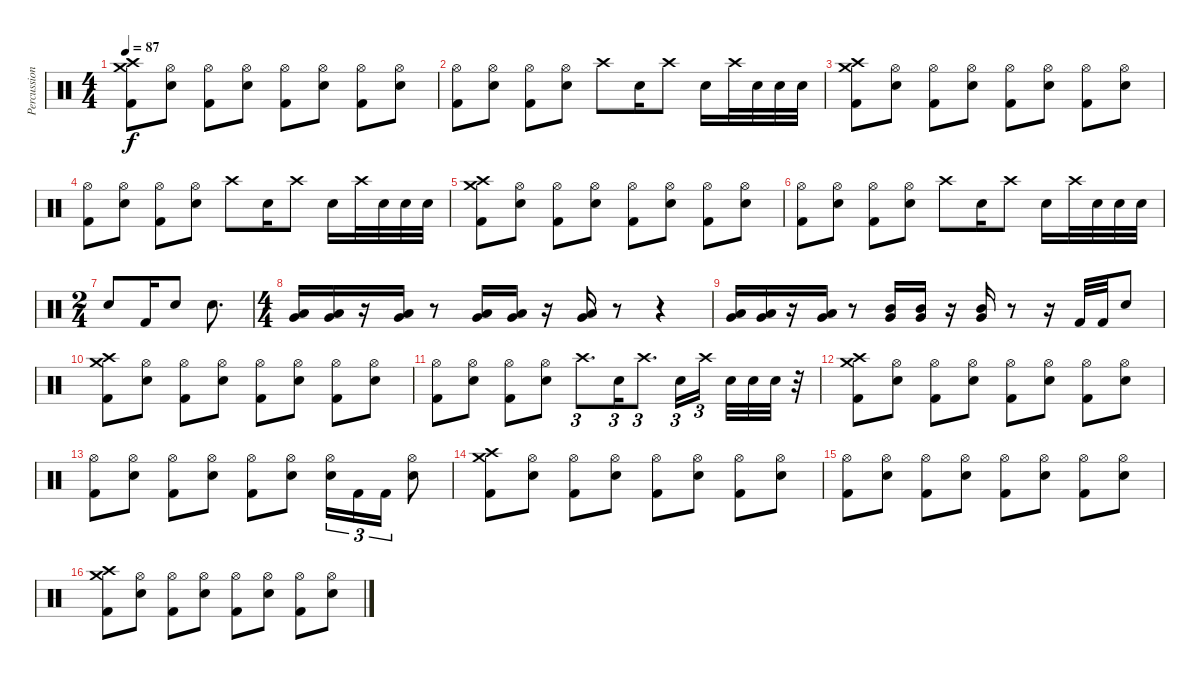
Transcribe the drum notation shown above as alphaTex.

\track ("Percussion" "Percussion") {instrument percussion}
\staff {score}
\articulation defaults
\ts (4 4)
\tempo 87
\clef neutral
\ks c
("Kick (hit) 2" "Crash high (hit)" "Crash medium (hit)").8{dy f} ("Electric Snare (hit)" "Hi-Hat (open)").8 ("Kick (hit) 2" "Hi-Hat (open)").8 ("Electric Snare (hit)" "Hi-Hat (open)").8 ("Kick (hit) 2" "Hi-Hat (open)").8 ("Electric Snare (hit)" "Hi-Hat (open)").8 ("Kick (hit) 2" "Hi-Hat (open)").8 ("Electric Snare (hit)" "Hi-Hat (open)").8 |
("Kick (hit) 2" "Hi-Hat (open)").8 ("Electric Snare (hit)" "Hi-Hat (open)").8 ("Kick (hit) 2" "Hi-Hat (open)").8 ("Electric Snare (hit)" "Hi-Hat (open)").8 "Crash high (hit)".8 "Electric Snare (hit)".16 "Crash high (hit)".8 "Electric Snare (hit)".16 "Crash high (hit)".32 "Electric Snare (hit)".32 "Electric Snare (hit)".32 "Electric Snare (hit)".32 |
("Kick (hit) 2" "Crash high (hit)" "Crash medium (hit)").8 ("Electric Snare (hit)" "Hi-Hat (open)").8 ("Kick (hit) 2" "Hi-Hat (open)").8 ("Electric Snare (hit)" "Hi-Hat (open)").8 ("Kick (hit) 2" "Hi-Hat (open)").8 ("Electric Snare (hit)" "Hi-Hat (open)").8 ("Kick (hit) 2" "Hi-Hat (open)").8 ("Electric Snare (hit)" "Hi-Hat (open)").8 |
("Kick (hit) 2" "Hi-Hat (open)").8 ("Electric Snare (hit)" "Hi-Hat (open)").8 ("Kick (hit) 2" "Hi-Hat (open)").8 ("Electric Snare (hit)" "Hi-Hat (open)").8 "Crash high (hit)".8 "Electric Snare (hit)".16 "Crash high (hit)".8 "Electric Snare (hit)".16 "Crash high (hit)".32 "Electric Snare (hit)".32 "Electric Snare (hit)".32 "Electric Snare (hit)".32 |
("Kick (hit) 2" "Crash high (hit)" "Crash medium (hit)").8 ("Electric Snare (hit)" "Hi-Hat (open)").8 ("Kick (hit) 2" "Hi-Hat (open)").8 ("Electric Snare (hit)" "Hi-Hat (open)").8 ("Kick (hit) 2" "Hi-Hat (open)").8 ("Electric Snare (hit)" "Hi-Hat (open)").8 ("Kick (hit) 2" "Hi-Hat (open)").8 ("Electric Snare (hit)" "Hi-Hat (open)").8 |
("Kick (hit) 2" "Hi-Hat (open)").8 ("Electric Snare (hit)" "Hi-Hat (open)").8 ("Kick (hit) 2" "Hi-Hat (open)").8 ("Electric Snare (hit)" "Hi-Hat (open)").8 "Crash high (hit)".8 "Electric Snare (hit)".16 "Crash high (hit)".8 "Electric Snare (hit)".16 "Crash high (hit)".32 "Electric Snare (hit)".32 "Electric Snare (hit)".32 "Electric Snare (hit)".32 |
\ts (2 4)
"Electric Snare (hit)".8 "Kick (hit) 2".16 "Electric Snare (hit)".8 "Electric Snare (hit)".8{d} |
\ts (4 4)
("Very Low Tom (hit)" "Low Tom (hit)").16 ("Very Low Tom (hit)" "Low Tom (hit)").16 r.16 ("Very Low Tom (hit)" "Low Tom (hit)").16 r.8 ("Very Low Tom (hit)" "Low Tom (hit)").16 ("Very Low Tom (hit)" "Low Tom (hit)").16 r.16 ("Very Low Tom (hit)" "Low Tom (hit)").16 r.8 r.4 |
("Very Low Tom (hit)" "Low Tom (hit)").16 ("Very Low Tom (hit)" "Low Tom (hit)").16 r.16 ("Very Low Tom (hit)" "Low Tom (hit)").16 r.8 ("Very Low Tom (hit)" "Mid Tom (hit)").16 ("Very Low Tom (hit)" "Mid Tom (hit)").16 r.16 ("Very Low Tom (hit)" "Mid Tom (hit)").16 r.8 r.16 "Kick (hit) 2".32 "Kick (hit) 2".32 "Electric Snare (hit)".8 |
("Kick (hit) 2" "Crash high (hit)" "Crash medium (hit)").8 ("Electric Snare (hit)" "Hi-Hat (open)").8 ("Kick (hit) 2" "Hi-Hat (open)").8 ("Electric Snare (hit)" "Hi-Hat (open)").8 ("Kick (hit) 2" "Hi-Hat (open)").8 ("Electric Snare (hit)" "Hi-Hat (open)").8 ("Kick (hit) 2" "Hi-Hat (open)").8 ("Electric Snare (hit)" "Hi-Hat (open)").8 |
("Kick (hit) 2" "Hi-Hat (open)").8 ("Electric Snare (hit)" "Hi-Hat (open)").8 ("Kick (hit) 2" "Hi-Hat (open)").8 ("Electric Snare (hit)" "Hi-Hat (open)").8 "Crash high (hit)".8{d tu (3 2)} "Electric Snare (hit)".16{tu (3 2)} "Crash high (hit)".8{d tu (3 2)} "Electric Snare (hit)".16{tu (3 2)} "Crash high (hit)".16{tu (3 2) beam splitsecondary} "Electric Snare (hit)".32 "Electric Snare (hit)".32 "Electric Snare (hit)".32 r.32 |
("Kick (hit) 2" "Crash high (hit)" "Crash medium (hit)").8 ("Electric Snare (hit)" "Hi-Hat (open)").8 ("Kick (hit) 2" "Hi-Hat (open)").8 ("Electric Snare (hit)" "Hi-Hat (open)").8 ("Kick (hit) 2" "Hi-Hat (open)").8 ("Electric Snare (hit)" "Hi-Hat (open)").8 ("Kick (hit) 2" "Hi-Hat (open)").8 ("Electric Snare (hit)" "Hi-Hat (open)").8 |
("Kick (hit) 2" "Hi-Hat (open)").8 ("Electric Snare (hit)" "Hi-Hat (open)").8 ("Kick (hit) 2" "Hi-Hat (open)").8 ("Electric Snare (hit)" "Hi-Hat (open)").8 ("Kick (hit) 2" "Hi-Hat (open)").8 ("Electric Snare (hit)" "Hi-Hat (open)").8 ("Electric Snare (hit)" "Hi-Hat (open)").16{tu (3 2)} "Kick (hit) 2".16{tu (3 2)} "Kick (hit) 2".16{tu (3 2)} ("Electric Snare (hit)" "Hi-Hat (open)").8 |
("Kick (hit) 2" "Crash high (hit)" "Crash medium (hit)").8 ("Electric Snare (hit)" "Hi-Hat (open)").8 ("Kick (hit) 2" "Hi-Hat (open)").8 ("Electric Snare (hit)" "Hi-Hat (open)").8 ("Kick (hit) 2" "Hi-Hat (open)").8 ("Electric Snare (hit)" "Hi-Hat (open)").8 ("Kick (hit) 2" "Hi-Hat (open)").8 ("Electric Snare (hit)" "Hi-Hat (open)").8 |
("Kick (hit) 2" "Hi-Hat (open)").8 ("Electric Snare (hit)" "Hi-Hat (open)").8 ("Kick (hit) 2" "Hi-Hat (open)").8 ("Electric Snare (hit)" "Hi-Hat (open)").8 ("Kick (hit) 2" "Hi-Hat (open)").8 ("Electric Snare (hit)" "Hi-Hat (open)").8 ("Kick (hit) 2" "Hi-Hat (open)").8 ("Electric Snare (hit)" "Hi-Hat (open)").8 |
("Kick (hit) 2" "Crash high (hit)" "Crash medium (hit)").8 ("Electric Snare (hit)" "Hi-Hat (open)").8 ("Kick (hit) 2" "Hi-Hat (open)").8 ("Electric Snare (hit)" "Hi-Hat (open)").8 ("Kick (hit) 2" "Hi-Hat (open)").8 ("Electric Snare (hit)" "Hi-Hat (open)").8 ("Kick (hit) 2" "Hi-Hat (open)").8 ("Electric Snare (hit)" "Hi-Hat (open)").8
